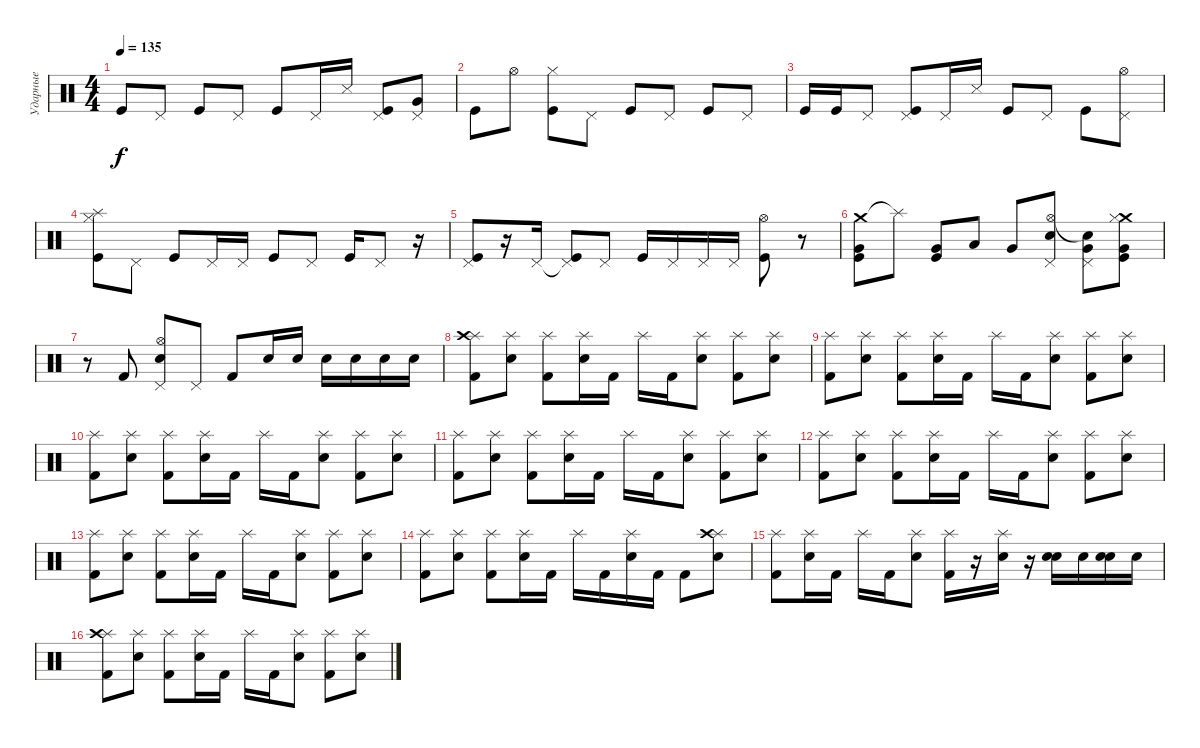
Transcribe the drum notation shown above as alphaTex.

\track ("Ударные" "Ударные") {instrument percussion}
\staff {score}
\articulation defaults
\ts (4 4)
\tempo 135
\clef neutral
\ks c "Kick (hit)".8{dy f} "Pedal Hi-Hat (hit)".8 "Kick (hit)".8 "Pedal Hi-Hat (hit)".8 "Kick (hit)".8 "Pedal Hi-Hat (hit)".16 "Snare (side stick) 3".16
("Pedal Hi-Hat (hit)" "Kick (hit)").8 ("Pedal Hi-Hat (hit)" "Very Low Tom (hit)").8 |
"Kick (hit)".8 "Hi-Hat (open)".8 ("Hi-Hat (closed)" "Kick (hit)").8 "Pedal Hi-Hat (hit)".8 "Kick (hit)".8 "Pedal Hi-Hat (hit)".8 "Kick (hit)".8 "Pedal Hi-Hat (hit)".8 |
"Kick (hit)".16 "Kick (hit)".16 "Pedal Hi-Hat (hit)".8 ("Pedal Hi-Hat (hit)" "Kick (hit)").8 "Pedal Hi-Hat (hit)".16 "Snare (side stick) 3".16 "Kick (hit)".8 "Pedal Hi-Hat (hit)".8 "Kick (hit)".8 ("Pedal Hi-Hat (hit)" "Hi-Hat (open)").8 |
("Splash (hit)" "Hi-Hat (closed)" "Kick (hit)").8 "Pedal Hi-Hat (hit)".8 "Kick (hit)".8 "Pedal Hi-Hat (hit)".16 "Pedal Hi-Hat (hit)".16 "Kick (hit)".8 "Pedal Hi-Hat (hit)".8 "Kick (hit)".16 "Pedal Hi-Hat (hit)".8 r.16 |
("Pedal Hi-Hat (hit)" "Kick (hit)").8 r.16 "Pedal Hi-Hat (hit)".16 ("Pedal Hi-Hat (hit)"{t} "Kick (hit)").8 "Pedal Hi-Hat (hit)".8 "Kick (hit)".16 "Pedal Hi-Hat (hit)".16 "Pedal Hi-Hat (hit)".16 "Pedal Hi-Hat (hit)".16 ("Hi-Hat (open)" "Kick (hit)").8 r.8 |
("Crash medium (hit)" "Very Low Tom (hit)" "Kick (hit)").8 "Splash (hit)"{t}.8 ("Very Low Tom (hit)" "Kick (hit)").8 "Low Floor Tom (hit)".8 "Very Low Tom (hit)".8 ("Pedal Hi-Hat (hit)" "Hi-Hat (open)" "Electric Snare (hit)").8 ("Pedal Hi-Hat (hit)" "Snare (hit)"{t} "Very Low Tom (hit)").8 ("Crash medium (hit)" "Hi-Hat (closed)" "Very Low Tom (hit)" "Kick (hit)").8 |
r.8 "Kick (hit) 2".8 ("Pedal Hi-Hat (hit)" "Hi-Hat (open)" "Electric Snare (hit)").8 "Pedal Hi-Hat (hit)".8 "Kick (hit) 2".8 "Electric Snare (hit)".16 "Electric Snare (hit)".16 "Electric Snare (hit)".16 "Electric Snare (hit)".16 "Electric Snare (hit)".16 "Electric Snare (hit)".16 |
("Splash (hit)" "Crash high (hit)" "Kick (hit) 2").8 ("Splash (hit)" "Electric Snare (hit)").8 ("Splash (hit)" "Kick (hit) 2").8 ("Splash (hit)" "Electric Snare (hit)").16 "Kick (hit) 2".16 "Splash (hit)".16 "Kick (hit) 2".16 ("Splash (hit)" "Electric Snare (hit)").8 ("Splash (hit)" "Kick (hit) 2").8 ("Splash (hit)" "Electric Snare (hit)").8 |
("Splash (hit)" "Kick (hit) 2").8 ("Splash (hit)" "Electric Snare (hit)").8 ("Splash (hit)" "Kick (hit) 2").8 ("Splash (hit)" "Electric Snare (hit)").16 "Kick (hit) 2".16 "Splash (hit)".16 "Kick (hit) 2".16 ("Splash (hit)" "Electric Snare (hit)").8 ("Splash (hit)" "Kick (hit) 2").8 ("Splash (hit)" "Electric Snare (hit)").8 |
("Splash (hit)" "Kick (hit) 2").8 ("Splash (hit)" "Electric Snare (hit)").8 ("Splash (hit)" "Kick (hit) 2").8 ("Splash (hit)" "Electric Snare (hit)").16 "Kick (hit) 2".16 "Splash (hit)".16 "Kick (hit) 2".16 ("Splash (hit)" "Electric Snare (hit)").8 ("Splash (hit)" "Kick (hit) 2").8 ("Splash (hit)" "Electric Snare (hit)").8 |
("Splash (hit)" "Kick (hit) 2").8 ("Splash (hit)" "Electric Snare (hit)").8 ("Splash (hit)" "Kick (hit) 2").8 ("Splash (hit)" "Electric Snare (hit)").16 "Kick (hit) 2".16 "Splash (hit)".16 "Kick (hit) 2".16 ("Splash (hit)" "Electric Snare (hit)").8 ("Splash (hit)" "Kick (hit) 2").8 ("Splash (hit)" "Electric Snare (hit)").8 |
("Splash (hit)" "Kick (hit) 2").8 ("Splash (hit)" "Electric Snare (hit)").8 ("Splash (hit)" "Kick (hit) 2").8 ("Splash (hit)" "Electric Snare (hit)").16 "Kick (hit) 2".16 "Splash (hit)".16 "Kick (hit) 2".16 ("Splash (hit)" "Electric Snare (hit)").8 ("Splash (hit)" "Kick (hit) 2").8 ("Splash (hit)" "Electric Snare (hit)").8 |
("Splash (hit)" "Kick (hit) 2").8 ("Splash (hit)" "Electric Snare (hit)").8 ("Splash (hit)" "Kick (hit) 2").8 ("Splash (hit)" "Electric Snare (hit)").16 "Kick (hit) 2".16 "Splash (hit)".16 "Kick (hit) 2".16 ("Splash (hit)" "Electric Snare (hit)").8 ("Splash (hit)" "Kick (hit) 2").8 ("Splash (hit)" "Electric Snare (hit)").8 |
("Splash (hit)" "Kick (hit) 2").8 ("Splash (hit)" "Electric Snare (hit)").8 ("Splash (hit)" "Kick (hit) 2").8 ("Splash (hit)" "Electric Snare (hit)").16 "Kick (hit) 2".16 "Splash (hit)".16 "Kick (hit) 2".16 ("Splash (hit)" "Electric Snare (hit)").16 "Kick (hit) 2".16 "Kick (hit) 2".8 ("Splash (hit)" "Crash high (hit)" "Electric Snare (hit)").8 |
("Splash (hit)" "Kick (hit) 2").8 ("Splash (hit)" "Electric Snare (hit)").16 "Kick (hit) 2".16 "Splash (hit)".16 "Kick (hit) 2".16 ("Splash (hit)" "Electric Snare (hit)").8 ("Splash (hit)" "Kick (hit) 2").16 r.16 ("Splash (hit)" "Electric Snare (hit)").16 r.16 ("Snare (hit) 2" "Electric Snare (hit)").16 "Snare (hit) 2".16 ("Snare (hit) 2" "Electric Snare (hit)").16 "Snare (hit) 2".16 |
("Splash (hit)" "Crash high (hit)" "Kick (hit) 2").8 ("Splash (hit)" "Electric Snare (hit)").8 ("Splash (hit)" "Kick (hit) 2").8 ("Splash (hit)" "Electric Snare (hit)").16 "Kick (hit) 2".16 "Splash (hit)".16 "Kick (hit) 2".16 ("Splash (hit)" "Electric Snare (hit)").8 ("Splash (hit)" "Kick (hit) 2").8 ("Splash (hit)" "Electric Snare (hit)").8
